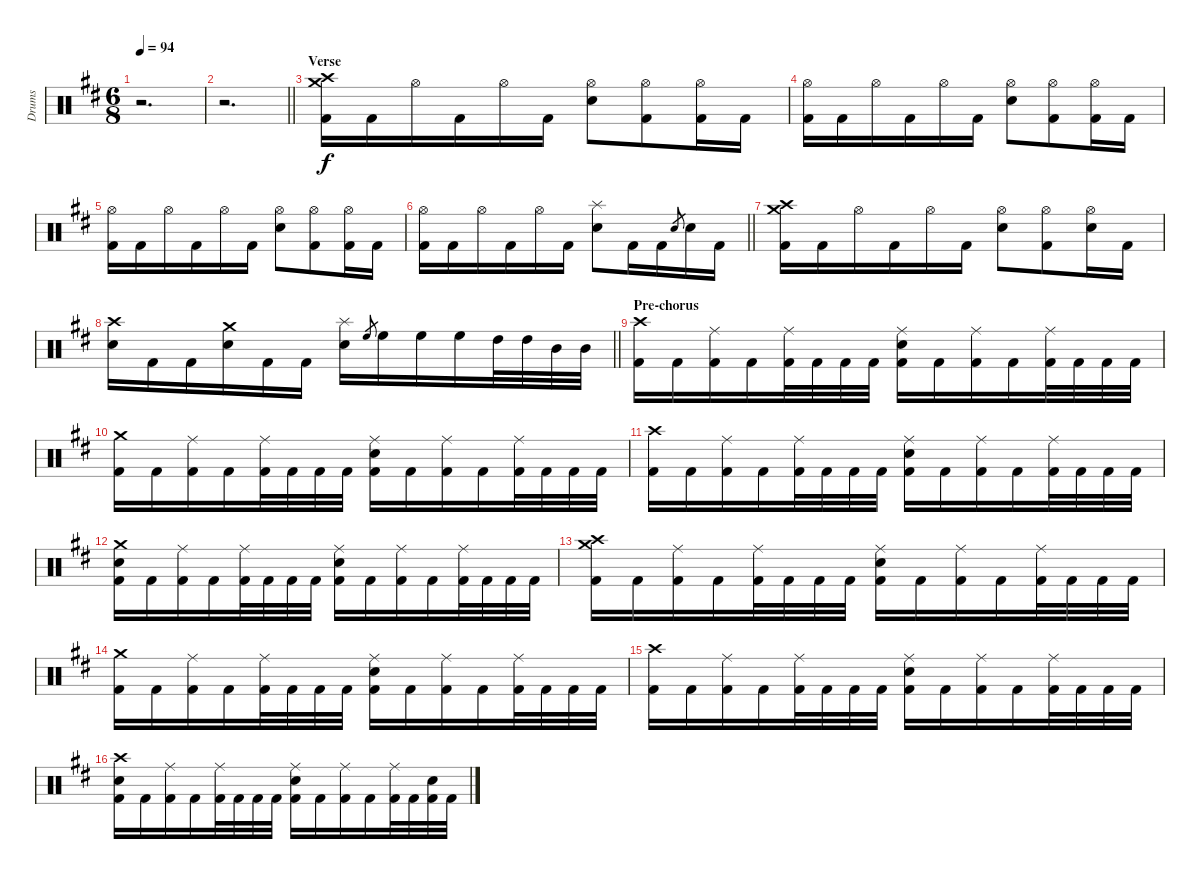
\track ("Drums" "Drums") {instrument percussion}
\staff {score}
\articulation defaults
\ts (6 8)
\tempo 94
\clef neutral
\ks bminor
r.2{d dy ff} |
\barLineRight lightlight
r.2{d} |
\section ("" "Verse")
("Crash high (hit)" "Crash medium (hit)" "Kick (hit) 2").16{dy f} "Kick (hit) 2".16 "Hi-Hat (open)".16 "Kick (hit) 2".16 "Hi-Hat (open)".16 "Kick (hit) 2".16 ("Hi-Hat (open)" "Snare (hit) 2").8 ("Hi-Hat (open)" "Kick (hit) 2").8 ("Hi-Hat (open)" "Kick (hit) 2").16 "Kick (hit) 2".16 |
("Hi-Hat (open)" "Kick (hit) 2").16 "Kick (hit) 2".16 "Hi-Hat (open)".16 "Kick (hit) 2".16 "Hi-Hat (open)".16 "Kick (hit) 2".16 ("Hi-Hat (open)" "Snare (hit) 2").8 ("Hi-Hat (open)" "Kick (hit) 2").8 ("Hi-Hat (open)" "Kick (hit) 2").16 "Kick (hit) 2".16 |
("Hi-Hat (open)" "Kick (hit) 2").16 "Kick (hit) 2".16 "Hi-Hat (open)".16 "Kick (hit) 2".16 "Hi-Hat (open)".16 "Kick (hit) 2".16 ("Hi-Hat (open)" "Snare (hit) 2").8 ("Hi-Hat (open)" "Kick (hit) 2").8 ("Hi-Hat (open)" "Kick (hit) 2").16 "Kick (hit) 2".16 |
\barLineRight lightlight
("Hi-Hat (open)" "Kick (hit) 2").16 "Kick (hit) 2".16 "Hi-Hat (open)".16 "Kick (hit) 2".16 "Hi-Hat (open)".16 "Kick (hit) 2".16 ("Splash (hit)" "Snare (hit) 2").8 "Kick (hit) 2".16 "Kick (hit) 2".16 "Snare (hit) 2".8{gr} "Snare (hit) 2".16 "Kick (hit) 2".16 |
("Crash high (hit)" "Crash medium (hit)" "Kick (hit) 2").16 "Kick (hit) 2".16 "Hi-Hat (open)".16 "Kick (hit) 2".16 "Hi-Hat (open)".16 "Kick (hit) 2".16 ("Hi-Hat (open)" "Snare (hit) 2").8 ("Hi-Hat (open)" "Kick (hit) 2").8 ("Hi-Hat (open)" "Snare (hit) 2").16 "Kick (hit) 2".16 |
\barLineRight lightlight
("Crash high (hit)" "Snare (hit) 2").16 "Kick (hit) 2".16 "Kick (hit) 2".16 ("Crash medium (hit)" "Snare (hit) 2").16 "Kick (hit) 2".16 "Kick (hit) 2".16 ("Splash (hit)" "Snare (hit) 2").16 "High Floor Tom (hit)".8{gr} "High Floor Tom (hit)".16 "High Floor Tom (hit)".16 "High Floor Tom (hit)".16 "High Tom (hit)".32 "High Tom (hit)".32 "Mid Tom (hit)".32 "Mid Tom (hit)".32 |
\section ("" "Pre-chorus")
("Crash high (hit)" "Kick (hit) 2").16 "Kick (hit) 2".16 ("Ride (middle)" "Kick (hit) 2").16 "Kick (hit) 2".16 ("Ride (middle)" "Kick (hit) 2").32 "Kick (hit) 2".32 "Kick (hit) 2".32 "Kick (hit) 2".32 ("Ride (middle)" "Snare (hit) 2" "Kick (hit) 2").16 "Kick (hit) 2".16 ("Ride (middle)" "Kick (hit) 2").16 "Kick (hit) 2".16 ("Ride (middle)" "Kick (hit) 2").32 "Kick (hit) 2".32 "Kick (hit) 2".32 "Kick (hit) 2".32 |
("Crash medium (hit)" "Kick (hit) 2").16 "Kick (hit) 2".16 ("Ride (middle)" "Kick (hit) 2").16 "Kick (hit) 2".16 ("Ride (middle)" "Kick (hit) 2").32 "Kick (hit) 2".32 "Kick (hit) 2".32 "Kick (hit) 2".32 ("Ride (middle)" "Snare (hit) 2" "Kick (hit) 2").16 "Kick (hit) 2".16 ("Ride (middle)" "Kick (hit) 2").16 "Kick (hit) 2".16 ("Ride (middle)" "Kick (hit) 2").32 "Kick (hit) 2".32 "Kick (hit) 2".32 "Kick (hit) 2".32 |
("Crash high (hit)" "Kick (hit) 2").16 "Kick (hit) 2".16 ("Ride (middle)" "Kick (hit) 2").16 "Kick (hit) 2".16 ("Ride (middle)" "Kick (hit) 2").32 "Kick (hit) 2".32 "Kick (hit) 2".32 "Kick (hit) 2".32 ("Ride (middle)" "Snare (hit) 2" "Kick (hit) 2").16 "Kick (hit) 2".16 ("Ride (middle)" "Kick (hit) 2").16 "Kick (hit) 2".16 ("Ride (middle)" "Kick (hit) 2").32 "Kick (hit) 2".32 "Kick (hit) 2".32 "Kick (hit) 2".32 |
("Crash medium (hit)" "Snare (hit) 2" "Kick (hit) 2").16 "Kick (hit) 2".16 ("Ride (middle)" "Kick (hit) 2").16 "Kick (hit) 2".16 ("Ride (middle)" "Kick (hit) 2").32 "Kick (hit) 2".32 "Kick (hit) 2".32 "Kick (hit) 2".32 ("Ride (middle)" "Snare (hit) 2" "Kick (hit) 2").16 "Kick (hit) 2".16 ("Ride (middle)" "Kick (hit) 2").16 "Kick (hit) 2".16 ("Ride (middle)" "Kick (hit) 2").32 "Kick (hit) 2".32 "Kick (hit) 2".32 "Kick (hit) 2".32 |
("Crash high (hit)" "Crash medium (hit)" "Kick (hit) 2").16 "Kick (hit) 2".16 ("Ride (middle)" "Kick (hit) 2").16 "Kick (hit) 2".16 ("Ride (middle)" "Kick (hit) 2").32 "Kick (hit) 2".32 "Kick (hit) 2".32 "Kick (hit) 2".32 ("Ride (middle)" "Snare (hit) 2" "Kick (hit) 2").16 "Kick (hit) 2".16 ("Ride (middle)" "Kick (hit) 2").16 "Kick (hit) 2".16 ("Ride (middle)" "Kick (hit) 2").32 "Kick (hit) 2".32 "Kick (hit) 2".32 "Kick (hit) 2".32 |
("Crash medium (hit)" "Kick (hit) 2").16 "Kick (hit) 2".16 ("Ride (middle)" "Kick (hit) 2").16 "Kick (hit) 2".16 ("Ride (middle)" "Kick (hit) 2").32 "Kick (hit) 2".32 "Kick (hit) 2".32 "Kick (hit) 2".32 ("Ride (middle)" "Snare (hit) 2" "Kick (hit) 2").16 "Kick (hit) 2".16 ("Ride (middle)" "Kick (hit) 2").16 "Kick (hit) 2".16 ("Ride (middle)" "Kick (hit) 2").32 "Kick (hit) 2".32 "Kick (hit) 2".32 "Kick (hit) 2".32 |
("Crash high (hit)" "Kick (hit) 2").16 "Kick (hit) 2".16 ("Ride (middle)" "Kick (hit) 2").16 "Kick (hit) 2".16 ("Ride (middle)" "Kick (hit) 2").32 "Kick (hit) 2".32 "Kick (hit) 2".32 "Kick (hit) 2".32 ("Ride (middle)" "Snare (hit) 2" "Kick (hit) 2").16 "Kick (hit) 2".16 ("Ride (middle)" "Kick (hit) 2").16 "Kick (hit) 2".16 ("Ride (middle)" "Kick (hit) 2").32 "Kick (hit) 2".32 "Kick (hit) 2".32 "Kick (hit) 2".32 |
("Crash high (hit)" "Snare (hit) 2" "Kick (hit) 2").16 "Kick (hit) 2".16 ("Ride (middle)" "Kick (hit) 2").16 "Kick (hit) 2".16 ("Ride (middle)" "Kick (hit) 2").32 "Kick (hit) 2".32 "Kick (hit) 2".32 "Kick (hit) 2".32 ("Ride (middle)" "Snare (hit) 2" "Kick (hit) 2").16 "Kick (hit) 2".16 ("Ride (middle)" "Kick (hit) 2").16 "Kick (hit) 2".16 ("Ride (middle)" "Kick (hit) 2").32 "Kick (hit) 2".32 ("Snare (hit) 2" "Kick (hit) 2").32 "Kick (hit) 2".32
